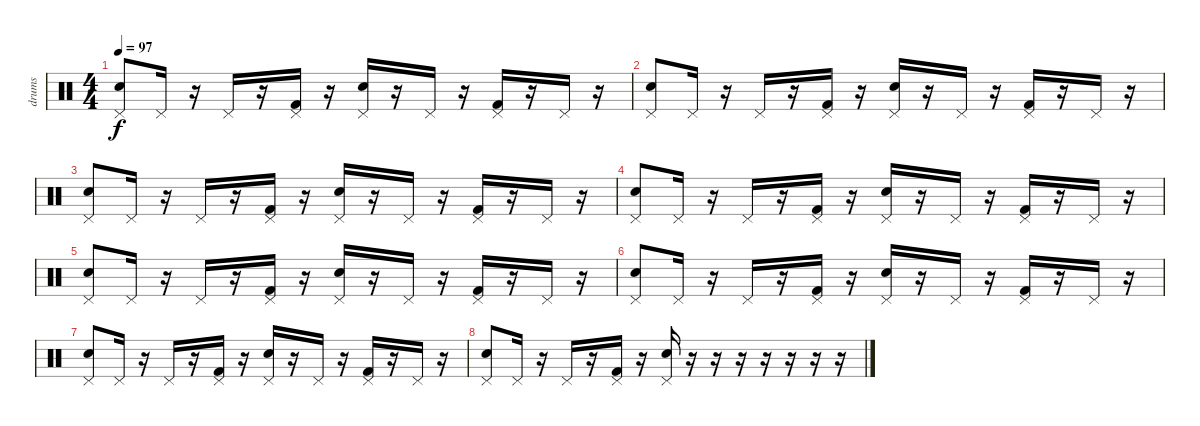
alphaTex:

\track ("drums" "drums") {instrument percussion}
\staff {score}
\articulation defaults
\ts (4 4)
\tempo 97
\clef neutral
\ks c
("Electric Snare (hit)" "Pedal Hi-Hat (hit)").8{dy f} "Pedal Hi-Hat (hit)".16 r.16 "Pedal Hi-Hat (hit)".16 r.16 ("Kick (hit) 2" "Pedal Hi-Hat (hit)").16 r.16 ("Electric Snare (hit)" "Pedal Hi-Hat (hit)").16 r.16 "Pedal Hi-Hat (hit)".16 r.16 ("Kick (hit) 2" "Pedal Hi-Hat (hit)").16 r.16 "Pedal Hi-Hat (hit)".16 r.16 |
("Electric Snare (hit)" "Pedal Hi-Hat (hit)").8 "Pedal Hi-Hat (hit)".16 r.16 "Pedal Hi-Hat (hit)".16 r.16 ("Kick (hit) 2" "Pedal Hi-Hat (hit)").16 r.16 ("Electric Snare (hit)" "Pedal Hi-Hat (hit)").16 r.16 "Pedal Hi-Hat (hit)".16 r.16 ("Kick (hit) 2" "Pedal Hi-Hat (hit)").16 r.16 "Pedal Hi-Hat (hit)".16 r.16 |
("Electric Snare (hit)" "Pedal Hi-Hat (hit)").8 "Pedal Hi-Hat (hit)".16 r.16 "Pedal Hi-Hat (hit)".16 r.16 ("Kick (hit) 2" "Pedal Hi-Hat (hit)").16 r.16 ("Electric Snare (hit)" "Pedal Hi-Hat (hit)").16 r.16 "Pedal Hi-Hat (hit)".16 r.16 ("Kick (hit) 2" "Pedal Hi-Hat (hit)").16 r.16 "Pedal Hi-Hat (hit)".16 r.16 |
("Electric Snare (hit)" "Pedal Hi-Hat (hit)").8 "Pedal Hi-Hat (hit)".16 r.16 "Pedal Hi-Hat (hit)".16 r.16 ("Kick (hit) 2" "Pedal Hi-Hat (hit)").16 r.16 ("Electric Snare (hit)" "Pedal Hi-Hat (hit)").16 r.16 "Pedal Hi-Hat (hit)".16 r.16 ("Kick (hit) 2" "Pedal Hi-Hat (hit)").16 r.16 "Pedal Hi-Hat (hit)".16 r.16 |
("Electric Snare (hit)" "Pedal Hi-Hat (hit)").8 "Pedal Hi-Hat (hit)".16 r.16 "Pedal Hi-Hat (hit)".16 r.16 ("Kick (hit) 2" "Pedal Hi-Hat (hit)").16 r.16 ("Electric Snare (hit)" "Pedal Hi-Hat (hit)").16 r.16 "Pedal Hi-Hat (hit)".16 r.16 ("Kick (hit) 2" "Pedal Hi-Hat (hit)").16 r.16 "Pedal Hi-Hat (hit)".16 r.16 |
("Electric Snare (hit)" "Pedal Hi-Hat (hit)").8 "Pedal Hi-Hat (hit)".16 r.16 "Pedal Hi-Hat (hit)".16 r.16 ("Kick (hit) 2" "Pedal Hi-Hat (hit)").16 r.16 ("Electric Snare (hit)" "Pedal Hi-Hat (hit)").16 r.16 "Pedal Hi-Hat (hit)".16 r.16 ("Kick (hit) 2" "Pedal Hi-Hat (hit)").16 r.16 "Pedal Hi-Hat (hit)".16 r.16 |
("Electric Snare (hit)" "Pedal Hi-Hat (hit)").8 "Pedal Hi-Hat (hit)".16 r.16 "Pedal Hi-Hat (hit)".16 r.16 ("Kick (hit) 2" "Pedal Hi-Hat (hit)").16 r.16 ("Electric Snare (hit)" "Pedal Hi-Hat (hit)").16 r.16 "Pedal Hi-Hat (hit)".16 r.16 ("Kick (hit) 2" "Pedal Hi-Hat (hit)").16 r.16 "Pedal Hi-Hat (hit)".16 r.16 |
("Electric Snare (hit)" "Pedal Hi-Hat (hit)").8 "Pedal Hi-Hat (hit)".16 r.16 "Pedal Hi-Hat (hit)".16 r.16 ("Kick (hit) 2" "Pedal Hi-Hat (hit)").16 r.16 ("Electric Snare (hit)" "Pedal Hi-Hat (hit)").16 r.16 r.16 r.16 r.16 r.16 r.16 r.16
